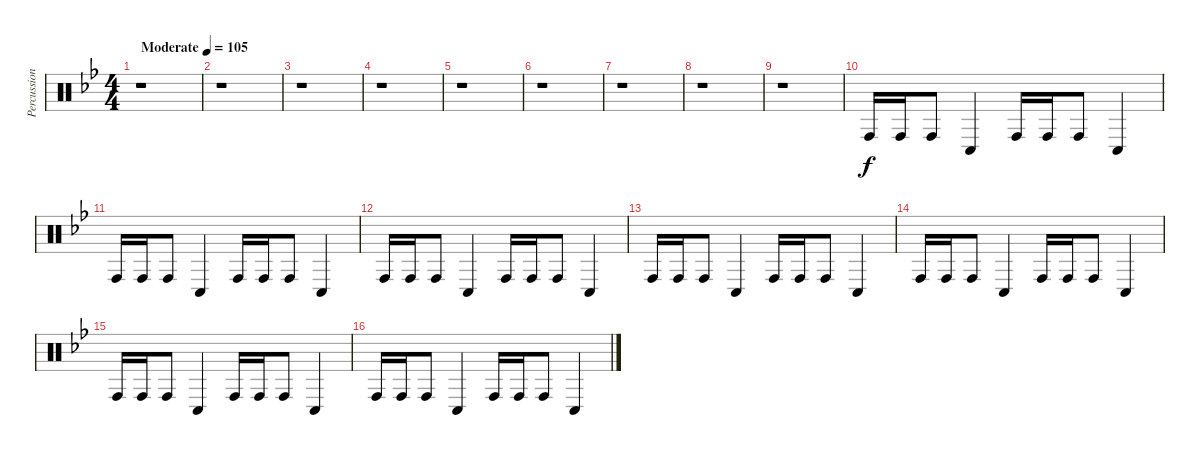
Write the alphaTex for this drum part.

\track ("Percussion" "Percussion") {instrument percussion}
\staff {score}
\articulation defaults
\ts (4 4)
\tempo (105 "Moderate")
\clef neutral
\ks bb
r.1{dy f} |
r.1 |
r.1 |
r.1 |
r.1 |
r.1 |
r.1 |
r.1 |
r.1 |
"Conga high (hit)".16 "Conga high (hit)".16 "Conga high (hit)".8 "Conga low (hit)".4 "Conga high (hit)".16 "Conga high (hit)".16 "Conga high (hit)".8 "Conga low (hit)".4 |
"Conga high (hit)".16 "Conga high (hit)".16 "Conga high (hit)".8 "Conga low (hit)".4 "Conga high (hit)".16 "Conga high (hit)".16 "Conga high (hit)".8 "Conga low (hit)".4 |
"Conga high (hit)".16 "Conga high (hit)".16 "Conga high (hit)".8 "Conga low (hit)".4 "Conga high (hit)".16 "Conga high (hit)".16 "Conga high (hit)".8 "Conga low (hit)".4 |
"Conga high (hit)".16 "Conga high (hit)".16 "Conga high (hit)".8 "Conga low (hit)".4 "Conga high (hit)".16 "Conga high (hit)".16 "Conga high (hit)".8 "Conga low (hit)".4 |
"Conga high (hit)".16 "Conga high (hit)".16 "Conga high (hit)".8 "Conga low (hit)".4 "Conga high (hit)".16 "Conga high (hit)".16 "Conga high (hit)".8 "Conga low (hit)".4 |
"Conga high (hit)".16 "Conga high (hit)".16 "Conga high (hit)".8 "Conga low (hit)".4 "Conga high (hit)".16 "Conga high (hit)".16 "Conga high (hit)".8 "Conga low (hit)".4 |
"Conga high (hit)".16 "Conga high (hit)".16 "Conga high (hit)".8 "Conga low (hit)".4 "Conga high (hit)".16 "Conga high (hit)".16 "Conga high (hit)".8 "Conga low (hit)".4
